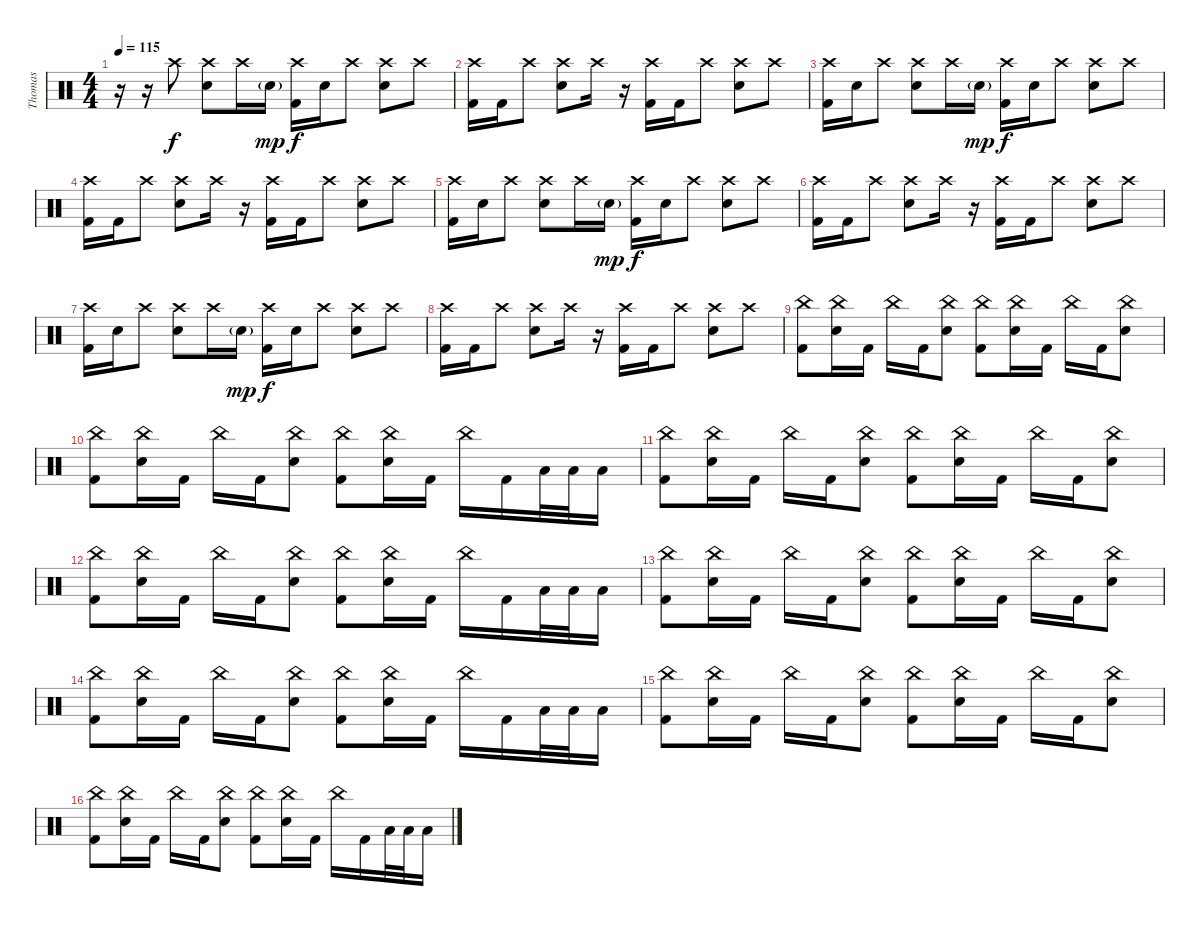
\track ("Thomas" "Thomas") {instrument percussion}
\staff {score}
\articulation defaults
\ts (4 4)
\tempo 115
\clef neutral
\ks c
r.16{dy f} r.16 "Crash high (hit)".8 ("Electric Snare (hit)" "Crash high (hit)").8 "Crash high (hit)".16 "Electric Snare (hit)"{g}.16{dy mp} ("Kick (hit) 2" "Crash high (hit)").16{dy f} "Electric Snare (hit)".16 "Crash high (hit)".8 ("Electric Snare (hit)" "Crash high (hit)").8 "Crash high (hit)".8 |
("Kick (hit) 2" "Crash high (hit)").16 "Kick (hit) 2".16 "Crash high (hit)".8 ("Electric Snare (hit)" "Crash high (hit)").8 "Crash high (hit)".16 r.16 ("Kick (hit) 2" "Crash high (hit)").16 "Kick (hit) 2".16 "Crash high (hit)".8 ("Electric Snare (hit)" "Crash high (hit)").8 "Crash high (hit)".8 |
("Kick (hit) 2" "Crash high (hit)").16 "Electric Snare (hit)".16 "Crash high (hit)".8 ("Electric Snare (hit)" "Crash high (hit)").8 "Crash high (hit)".16 "Electric Snare (hit)"{g}.16{dy mp} ("Kick (hit) 2" "Crash high (hit)").16{dy f} "Electric Snare (hit)".16 "Crash high (hit)".8 ("Electric Snare (hit)" "Crash high (hit)").8 "Crash high (hit)".8 |
("Kick (hit) 2" "Crash high (hit)").16 "Kick (hit) 2".16 "Crash high (hit)".8 ("Electric Snare (hit)" "Crash high (hit)").8 "Crash high (hit)".16 r.16 ("Kick (hit) 2" "Crash high (hit)").16 "Kick (hit) 2".16 "Crash high (hit)".8 ("Electric Snare (hit)" "Crash high (hit)").8 "Crash high (hit)".8 |
("Kick (hit) 2" "Crash high (hit)").16 "Electric Snare (hit)".16 "Crash high (hit)".8 ("Electric Snare (hit)" "Crash high (hit)").8 "Crash high (hit)".16 "Electric Snare (hit)"{g}.16{dy mp} ("Kick (hit) 2" "Crash high (hit)").16{dy f} "Electric Snare (hit)".16 "Crash high (hit)".8 ("Electric Snare (hit)" "Crash high (hit)").8 "Crash high (hit)".8 |
("Kick (hit) 2" "Crash high (hit)").16 "Kick (hit) 2".16 "Crash high (hit)".8 ("Electric Snare (hit)" "Crash high (hit)").8 "Crash high (hit)".16 r.16 ("Kick (hit) 2" "Crash high (hit)").16 "Kick (hit) 2".16 "Crash high (hit)".8 ("Electric Snare (hit)" "Crash high (hit)").8 "Crash high (hit)".8 |
("Kick (hit) 2" "Crash high (hit)").16 "Electric Snare (hit)".16 "Crash high (hit)".8 ("Electric Snare (hit)" "Crash high (hit)").8 "Crash high (hit)".16 "Electric Snare (hit)"{g}.16{dy mp} ("Kick (hit) 2" "Crash high (hit)").16{dy f} "Electric Snare (hit)".16 "Crash high (hit)".8 ("Electric Snare (hit)" "Crash high (hit)").8 "Crash high (hit)".8 |
("Kick (hit) 2" "Crash high (hit)").16 "Kick (hit) 2".16 "Crash high (hit)".8 ("Electric Snare (hit)" "Crash high (hit)").8 "Crash high (hit)".16 r.16 ("Kick (hit) 2" "Crash high (hit)").16 "Kick (hit) 2".16 "Crash high (hit)".8 ("Electric Snare (hit)" "Crash high (hit)").8 "Crash high (hit)".8 |
("China (hit)" "Kick (hit) 2").8 ("China (hit)" "Electric Snare (hit)").16 "Kick (hit) 2".16 "China (hit)".16 "Kick (hit) 2".16 ("China (hit)" "Electric Snare (hit)").8 ("China (hit)" "Kick (hit) 2").8 ("China (hit)" "Electric Snare (hit)").16 "Kick (hit) 2".16 "China (hit)".16 "Kick (hit) 2".16 ("China (hit)" "Electric Snare (hit)").8 |
("China (hit)" "Kick (hit) 2").8 ("China (hit)" "Electric Snare (hit)").16 "Kick (hit) 2".16 "China (hit)".16 "Kick (hit) 2".16 ("China (hit)" "Electric Snare (hit)").8 ("China (hit)" "Kick (hit) 2").8 ("China (hit)" "Electric Snare (hit)").16 "Kick (hit) 2".16 "China (hit)".16 "Kick (hit) 2".16 "Low Tom (hit)".32 "Low Tom (hit)".32 "Low Tom (hit)".16 |
("China (hit)" "Kick (hit) 2").8 ("China (hit)" "Electric Snare (hit)").16 "Kick (hit) 2".16 "China (hit)".16 "Kick (hit) 2".16 ("China (hit)" "Electric Snare (hit)").8 ("China (hit)" "Kick (hit) 2").8 ("China (hit)" "Electric Snare (hit)").16 "Kick (hit) 2".16 "China (hit)".16 "Kick (hit) 2".16 ("China (hit)" "Electric Snare (hit)").8 |
("China (hit)" "Kick (hit) 2").8 ("China (hit)" "Electric Snare (hit)").16 "Kick (hit) 2".16 "China (hit)".16 "Kick (hit) 2".16 ("China (hit)" "Electric Snare (hit)").8 ("China (hit)" "Kick (hit) 2").8 ("China (hit)" "Electric Snare (hit)").16 "Kick (hit) 2".16 "China (hit)".16 "Kick (hit) 2".16 "Low Tom (hit)".32 "Low Tom (hit)".32 "Low Tom (hit)".16 |
("China (hit)" "Kick (hit) 2").8 ("China (hit)" "Electric Snare (hit)").16 "Kick (hit) 2".16 "China (hit)".16 "Kick (hit) 2".16 ("China (hit)" "Electric Snare (hit)").8 ("China (hit)" "Kick (hit) 2").8 ("China (hit)" "Electric Snare (hit)").16 "Kick (hit) 2".16 "China (hit)".16 "Kick (hit) 2".16 ("China (hit)" "Electric Snare (hit)").8 |
("China (hit)" "Kick (hit) 2").8 ("China (hit)" "Electric Snare (hit)").16 "Kick (hit) 2".16 "China (hit)".16 "Kick (hit) 2".16 ("China (hit)" "Electric Snare (hit)").8 ("China (hit)" "Kick (hit) 2").8 ("China (hit)" "Electric Snare (hit)").16 "Kick (hit) 2".16 "China (hit)".16 "Kick (hit) 2".16 "Low Tom (hit)".32 "Low Tom (hit)".32 "Low Tom (hit)".16 |
("China (hit)" "Kick (hit) 2").8 ("China (hit)" "Electric Snare (hit)").16 "Kick (hit) 2".16 "China (hit)".16 "Kick (hit) 2".16 ("China (hit)" "Electric Snare (hit)").8 ("China (hit)" "Kick (hit) 2").8 ("China (hit)" "Electric Snare (hit)").16 "Kick (hit) 2".16 "China (hit)".16 "Kick (hit) 2".16 ("China (hit)" "Electric Snare (hit)").8 |
("China (hit)" "Kick (hit) 2").8 ("China (hit)" "Electric Snare (hit)").16 "Kick (hit) 2".16 "China (hit)".16 "Kick (hit) 2".16 ("China (hit)" "Electric Snare (hit)").8 ("China (hit)" "Kick (hit) 2").8 ("China (hit)" "Electric Snare (hit)").16 "Kick (hit) 2".16 "China (hit)".16 "Kick (hit) 2".16 "Low Tom (hit)".32 "Low Tom (hit)".32 "Low Tom (hit)".16
